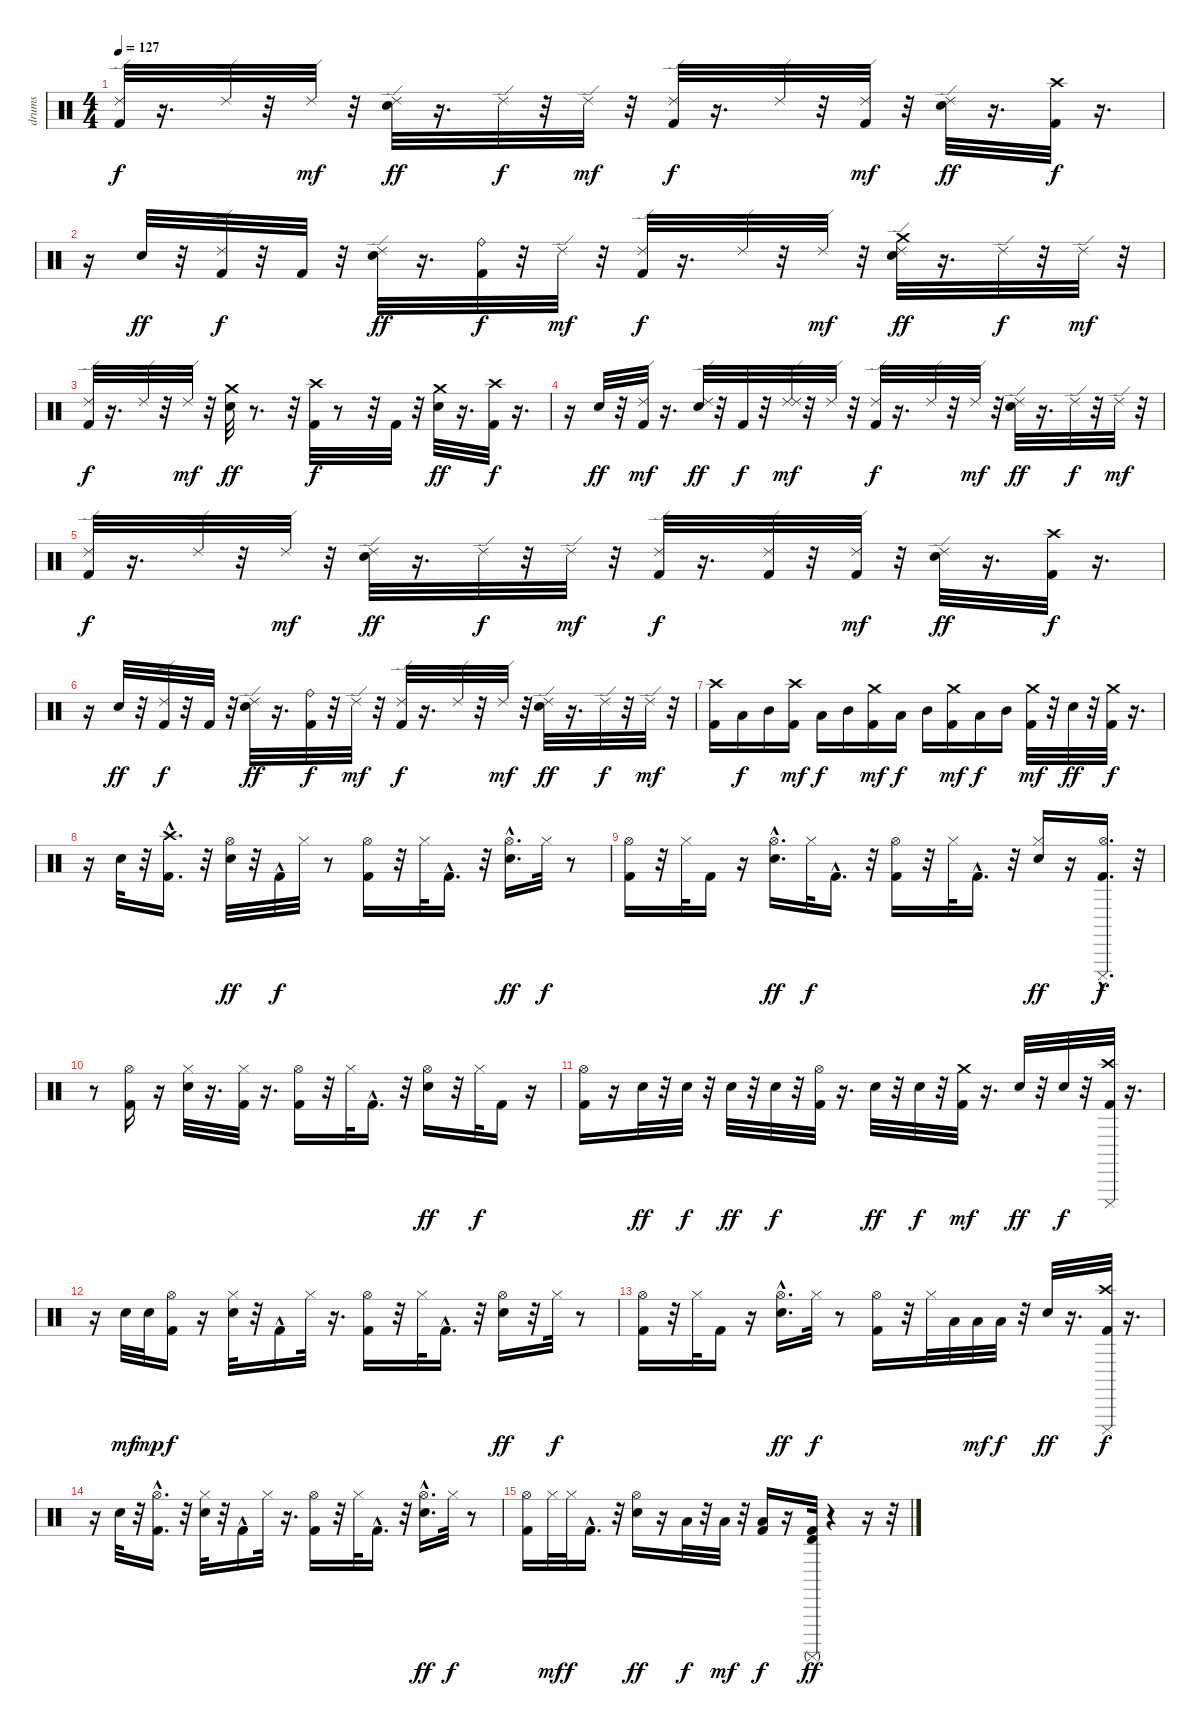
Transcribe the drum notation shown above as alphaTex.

\track ("drums" "drums") {instrument percussion}
\staff {score}
\articulation defaults
\ts (4 4)
\tempo 127
\clef neutral
\ks c
("Ride (edge) 2" "Kick (hit) 2").32{dy f} r.16{d} "Ride (edge) 2".32 r.32 "Ride (edge) 2".32{dy mf} r.32 ("Ride (edge) 2" "Electric Snare (hit)").32{dy ff} r.16{d} "Ride (edge) 2".32{dy f} r.32 "Ride (edge) 2".32{dy mf} r.32 ("Ride (edge) 2" "Kick (hit) 2").32{dy f} r.16{d} "Ride (edge) 2".32 r.32 ("Ride (edge) 2" "Kick (hit) 2").32{dy mf} r.32 ("Ride (edge) 2" "Electric Snare (hit)").32{dy ff} r.16{d} ("Crash high (hit)" "Kick (hit) 2").32{dy f} r.16{d} |
r.16 "Electric Snare (hit)".32{dy ff} r.32 ("Ride (edge) 2" "Kick (hit) 2").32{dy f} r.32 "Kick (hit) 2".32 r.32 ("Ride (edge) 2" "Electric Snare (hit)").32{dy ff} r.16{d} ("Ride (bell)" "Kick (hit) 2").32{dy f} r.32 "Ride (edge) 2".32{dy mf} r.32 ("Ride (edge) 2" "Kick (hit) 2").32{dy f} r.16{d} "Ride (edge) 2".32 r.32 "Ride (edge) 2".32{dy mf} r.32 ("Crash medium (hit)" "Ride (edge) 2" "Electric Snare (hit)").32{dy ff} r.16{d} "Ride (edge) 2".32{dy f} r.32 "Ride (edge) 2".32{dy mf} r.32 |
("Ride (edge) 2" "Kick (hit) 2").32{dy f} r.16{d} "Ride (edge) 2".32 r.32 "Ride (edge) 2".32{dy mf} r.32 ("Crash medium (hit)" "Electric Snare (hit)").32{dy ff} r.8{d} r.32 ("Crash high (hit)" "Kick (hit) 2").32{dy f} r.8 r.32 "Kick (hit) 2".32 r.32 ("Crash medium (hit)" "Electric Snare (hit)").32{dy ff} r.16{d} ("Crash high (hit)" "Kick (hit) 2").32{dy f} r.16{d} |
r.16 "Electric Snare (hit)".32{dy ff} r.32 ("Ride (edge) 2" "Kick (hit) 2").32{dy mf} r.16{d} ("Electric Snare (hit)" "Ride (edge) 2").32{dy ff} r.32 "Kick (hit) 2".32{dy f} r.32 ("Ride (edge) 2" "Ride (edge) 2").32{dy mf} r.32 "Ride (edge) 2".32 r.32 ("Ride (edge) 2" "Kick (hit) 2").32{dy f} r.16{d} "Ride (edge) 2".32 r.32 "Ride (edge) 2".32{dy mf} r.32 ("Ride (edge) 2" "Electric Snare (hit)").32{dy ff} r.16{d} "Ride (edge) 2".32{dy f} r.32 "Ride (edge) 2".32{dy mf} r.32 |
("Ride (edge) 2" "Kick (hit) 2").32{dy f} r.16{d} "Ride (edge) 2".32 r.32 "Ride (edge) 2".32{dy mf} r.32 ("Ride (edge) 2" "Electric Snare (hit)").32{dy ff} r.16{d} "Ride (edge) 2".32{dy f} r.32 "Ride (edge) 2".32{dy mf} r.32 ("Ride (edge) 2" "Kick (hit) 2").32{dy f} r.16{d} ("Kick (hit) 2" "Ride (edge) 2").32 r.32 ("Ride (edge) 2" "Kick (hit) 2").32{dy mf} r.32 ("Ride (edge) 2" "Electric Snare (hit)").32{dy ff} r.16{d} ("Crash high (hit)" "Kick (hit) 2").32{dy f} r.16{d} |
r.16 "Electric Snare (hit)".32{dy ff} r.32 ("Ride (edge) 2" "Kick (hit) 2").32{dy f} r.32 "Kick (hit) 2".32 r.32 ("Ride (edge) 2" "Electric Snare (hit)").32{dy ff} r.16{d} ("Ride (bell)" "Kick (hit) 2").32{dy f} r.32 "Ride (edge) 2".32{dy mf} r.32 ("Ride (edge) 2" "Kick (hit) 2").32{dy f} r.16{d} "Ride (edge) 2".32 r.32 "Ride (edge) 2".32{dy mf} r.32 ("Ride (edge) 2" "Electric Snare (hit)").32{dy ff} r.16{d} "Ride (edge) 2".32{dy f} r.32 "Ride (edge) 2".32{dy mf} r.32 |
("Crash high (hit)" "Kick (hit) 2").16 "Low Tom (hit)".16{dy f} "Mid Tom (hit)".16 ("Crash high (hit)" "Kick (hit) 2").16{dy mf} "Low Tom (hit)".16{dy f} "Mid Tom (hit)".16 ("Crash medium (hit)" "Kick (hit) 2").16{dy mf} "Low Tom (hit)".16{dy f} "Mid Tom (hit)".16 ("Crash medium (hit)" "Kick (hit) 2").16{dy mf} "Low Tom (hit)".16{dy f} "Mid Tom (hit)".16 ("Crash medium (hit)" "Kick (hit) 2").32{dy mf} r.32 "Electric Snare (hit)".32{dy ff} r.32 ("Crash medium (hit)" "Kick (hit) 2").32{dy f} r.16{d} |
r.16 "Electric Snare (hit)".32 r.32 ("Kick (hit) 2"{hac} "Crash high (hit)").16{d} r.32 ("Electric Snare (hit)" "Hi-Hat (open)").32{dy ff} r.32 "Kick (hit) 2"{hac}.32{dy f} "Hi-Hat (closed)".32 r.8 ("Kick (hit) 2" "Hi-Hat (open)").16 r.32 "Hi-Hat (closed)".32 "Kick (hit) 2"{hac}.16{d} r.32 ("Electric Snare (hit)"{hac} "Hi-Hat (open)").16{d dy ff} "Hi-Hat (closed)".32{dy f} r.8 |
("Kick (hit) 2" "Hi-Hat (open)").16 r.32 "Hi-Hat (closed)".32 "Kick (hit) 2".16 r.16 ("Electric Snare (hit)"{hac} "Hi-Hat (open)").16{d dy ff} "Hi-Hat (closed)".32{dy f} "Kick (hit) 2"{hac}.16{d} r.32 ("Kick (hit) 2" "Hi-Hat (open)").16 r.32 "Hi-Hat (closed)".32 "Kick (hit) 2"{hac}.16{d} r.32 ("Electric Snare (hit)" "Hi-Hat (closed)").16{dy ff} r.16 ("Kick (hit) 2"{hac} "Hi-Hat (open)" "Cuica (mute)").16{d dy f} r.32 |
r.8 ("Kick (hit) 2" "Hi-Hat (open)").16 r.16 ("Electric Snare (hit)" "Hi-Hat (closed)").32 r.16{d} ("Kick (hit) 2" "Hi-Hat (closed)").32 r.16{d} ("Kick (hit) 2" "Hi-Hat (open)").16 r.32 "Hi-Hat (closed)".32 "Kick (hit) 2"{hac}.16{d} r.32 ("Electric Snare (hit)" "Hi-Hat (open)").16{dy ff} r.32 "Hi-Hat (closed)".32{dy f} "Kick (hit) 2".16 r.16 |
("Kick (hit) 2" "Hi-Hat (open)").16 r.16 "Electric Snare (hit)".32{dy ff} r.32 "Electric Snare (hit)".32{dy f} r.32 "Electric Snare (hit)".32{dy ff} r.32 "Electric Snare (hit)".32{dy f} r.32 ("Hi-Hat (open)" "Kick (hit) 2").32 r.16{d} "Electric Snare (hit)".32{dy ff} r.32 "Electric Snare (hit)".32{dy f} r.32 ("Crash medium (hit)" "Kick (hit) 2").32{dy mf} r.16{d} "Electric Snare (hit)".32{dy ff} r.32 "Electric Snare (hit)".32{dy f} r.32 ("Kick (hit) 2" "Crash high (hit)" "Cuica (mute)").32 r.16{d} |
r.16 "Electric Snare (hit)".32{dy mf} "Electric Snare (hit)".32{dy mp} ("Kick (hit) 2" "Hi-Hat (open)").16{dy f} r.16 ("Electric Snare (hit)" "Hi-Hat (closed)").32 r.32 "Kick (hit) 2"{hac}.16 "Hi-Hat (closed)".32 r.16{d} ("Kick (hit) 2" "Hi-Hat (open)").16 r.32 "Hi-Hat (closed)".32 "Kick (hit) 2"{hac}.16{d} r.32 ("Electric Snare (hit)" "Hi-Hat (open)").16{dy ff} r.32 "Hi-Hat (closed)".32{dy f} r.8 |
("Kick (hit) 2" "Hi-Hat (open)").16 r.32 "Hi-Hat (closed)".32 "Kick (hit) 2".16 r.16 ("Electric Snare (hit)"{hac} "Hi-Hat (open)").16{d dy ff} "Hi-Hat (closed)".32{dy f} r.8 ("Kick (hit) 2" "Hi-Hat (open)").16 r.32 "Hi-Hat (closed)".32 "Low Tom (hit)".32 "Low Tom (hit)".32{dy mf} "Low Tom (hit)".32{dy f} r.32 "Electric Snare (hit)".32{dy ff} r.16{d} ("Kick (hit) 2" "Crash high (hit)" "Cuica (mute)").32{dy f} r.16{d} |
r.16 "Electric Snare (hit)".32 r.32 ("Kick (hit) 2"{hac} "Hi-Hat (open)").16{d} r.32 ("Electric Snare (hit)" "Hi-Hat (closed)").32 r.32 "Kick (hit) 2"{hac}.16 "Hi-Hat (closed)".32 r.16{d} ("Kick (hit) 2" "Hi-Hat (open)").16 r.32 "Hi-Hat (closed)".32 "Kick (hit) 2"{hac}.16{d} r.32 ("Electric Snare (hit)"{hac} "Hi-Hat (open)").16{d dy ff} "Hi-Hat (closed)".32{dy f} r.8 |
("Kick (hit) 2" "Hi-Hat (open)").16 "Hi-Hat (closed)".32{dy mf} "Hi-Hat (closed)".32{dy f} "Kick (hit) 2"{hac}.16{d} r.32 ("Electric Snare (hit)" "Hi-Hat (open)").16{dy ff} r.16 "Low Floor Tom (hit)".32{dy f} r.32 "Low Floor Tom (hit)".32{dy mf} r.32 ("Low Floor Tom (hit)" "Kick (hit) 2").16{dy f} r.16 ("Timbale high (hit)" "Surdo (mute)" "Kick (hit) 2").32{dy ff} r.4 r.16 r.32
